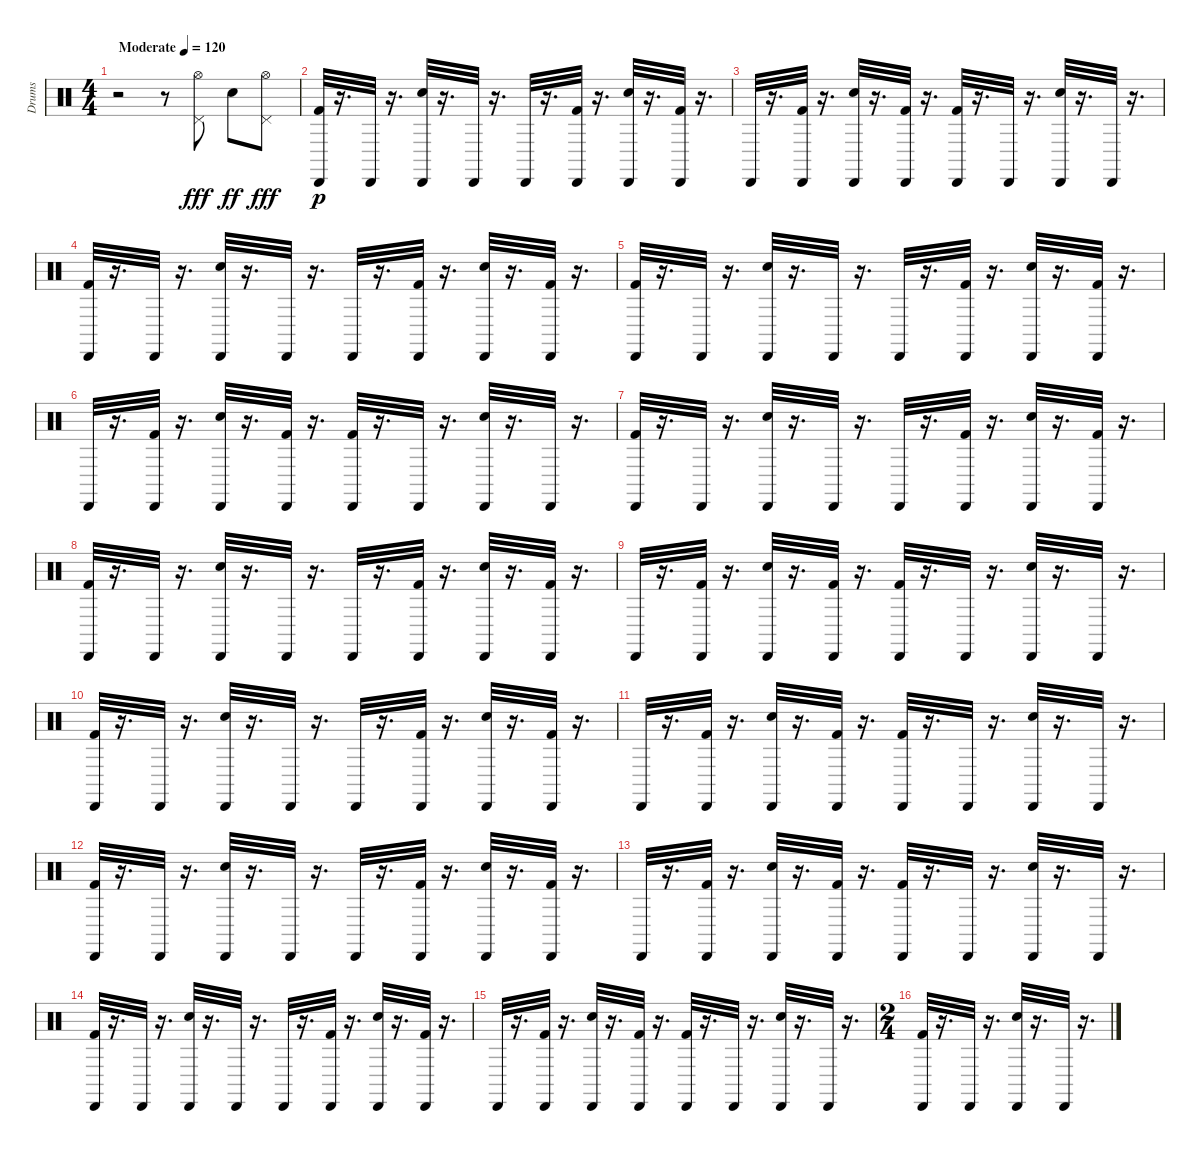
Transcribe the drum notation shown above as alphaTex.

\track ("Drums" "Drums") {instrument percussion}
\staff {score}
\articulation defaults
\ts (4 4)
\tempo (120 "Moderate")
\clef neutral
\ks c
r.2{dy fff} r.8 ("Pedal Hi-Hat (hit)" "Hi-Hat (open)").8 "Electric Snare (hit)".8{dy ff} ("Pedal Hi-Hat (hit)" "Hi-Hat (open)").8{dy fff} |
("Cabasa (hit)" "Kick (hit) 2").32{dy p} r.16{d} "Cabasa (hit)".32 r.16{d} ("Cabasa (hit)" "Electric Snare (hit)").32 r.16{d} "Cabasa (hit)".32 r.16{d} "Cabasa (hit)".32 r.16{d} ("Cabasa (hit)" "Kick (hit) 2").32 r.16{d} ("Cabasa (hit)" "Electric Snare (hit)").32 r.16{d} ("Cabasa (hit)" "Kick (hit) 2").32 r.16{d} |
"Cabasa (hit)".32 r.16{d} ("Cabasa (hit)" "Kick (hit) 2").32 r.16{d} ("Cabasa (hit)" "Electric Snare (hit)").32 r.16{d} ("Cabasa (hit)" "Kick (hit) 2").32 r.16{d} ("Cabasa (hit)" "Kick (hit) 2").32 r.16{d} "Cabasa (hit)".32 r.16{d} ("Cabasa (hit)" "Electric Snare (hit)").32 r.16{d} "Cabasa (hit)".32 r.16{d} |
("Cabasa (hit)" "Kick (hit) 2").32 r.16{d} "Cabasa (hit)".32 r.16{d} ("Cabasa (hit)" "Electric Snare (hit)").32 r.16{d} "Cabasa (hit)".32 r.16{d} "Cabasa (hit)".32 r.16{d} ("Cabasa (hit)" "Kick (hit) 2").32 r.16{d} ("Cabasa (hit)" "Electric Snare (hit)").32 r.16{d} ("Cabasa (hit)" "Kick (hit) 2").32 r.16{d} |
("Cabasa (hit)" "Kick (hit) 2").32 r.16{d} "Cabasa (hit)".32 r.16{d} ("Cabasa (hit)" "Electric Snare (hit)").32 r.16{d} "Cabasa (hit)".32 r.16{d} "Cabasa (hit)".32 r.16{d} ("Cabasa (hit)" "Kick (hit) 2").32 r.16{d} ("Cabasa (hit)" "Electric Snare (hit)").32 r.16{d} ("Cabasa (hit)" "Kick (hit) 2").32 r.16{d} |
"Cabasa (hit)".32 r.16{d} ("Cabasa (hit)" "Kick (hit) 2").32 r.16{d} ("Cabasa (hit)" "Electric Snare (hit)").32 r.16{d} ("Cabasa (hit)" "Kick (hit) 2").32 r.16{d} ("Cabasa (hit)" "Kick (hit) 2").32 r.16{d} "Cabasa (hit)".32 r.16{d} ("Cabasa (hit)" "Electric Snare (hit)").32 r.16{d} "Cabasa (hit)".32 r.16{d} |
("Cabasa (hit)" "Kick (hit) 2").32 r.16{d} "Cabasa (hit)".32 r.16{d} ("Cabasa (hit)" "Electric Snare (hit)").32 r.16{d} "Cabasa (hit)".32 r.16{d} "Cabasa (hit)".32 r.16{d} ("Cabasa (hit)" "Kick (hit) 2").32 r.16{d} ("Cabasa (hit)" "Electric Snare (hit)").32 r.16{d} ("Cabasa (hit)" "Kick (hit) 2").32 r.16{d} |
("Cabasa (hit)" "Kick (hit) 2").32 r.16{d} "Cabasa (hit)".32 r.16{d} ("Cabasa (hit)" "Electric Snare (hit)").32 r.16{d} "Cabasa (hit)".32 r.16{d} "Cabasa (hit)".32 r.16{d} ("Cabasa (hit)" "Kick (hit) 2").32 r.16{d} ("Cabasa (hit)" "Electric Snare (hit)").32 r.16{d} ("Cabasa (hit)" "Kick (hit) 2").32 r.16{d} |
"Cabasa (hit)".32 r.16{d} ("Cabasa (hit)" "Kick (hit) 2").32 r.16{d} ("Cabasa (hit)" "Electric Snare (hit)").32 r.16{d} ("Cabasa (hit)" "Kick (hit) 2").32 r.16{d} ("Cabasa (hit)" "Kick (hit) 2").32 r.16{d} "Cabasa (hit)".32 r.16{d} ("Cabasa (hit)" "Electric Snare (hit)").32 r.16{d} "Cabasa (hit)".32 r.16{d} |
("Cabasa (hit)" "Kick (hit) 2").32 r.16{d} "Cabasa (hit)".32 r.16{d} ("Cabasa (hit)" "Electric Snare (hit)").32 r.16{d} "Cabasa (hit)".32 r.16{d} "Cabasa (hit)".32 r.16{d} ("Cabasa (hit)" "Kick (hit) 2").32 r.16{d} ("Cabasa (hit)" "Electric Snare (hit)").32 r.16{d} ("Cabasa (hit)" "Kick (hit) 2").32 r.16{d} |
"Cabasa (hit)".32 r.16{d} ("Cabasa (hit)" "Kick (hit) 2").32 r.16{d} ("Cabasa (hit)" "Electric Snare (hit)").32 r.16{d} ("Cabasa (hit)" "Kick (hit) 2").32 r.16{d} ("Cabasa (hit)" "Kick (hit) 2").32 r.16{d} "Cabasa (hit)".32 r.16{d} ("Cabasa (hit)" "Electric Snare (hit)").32 r.16{d} "Cabasa (hit)".32 r.16{d} |
("Cabasa (hit)" "Kick (hit) 2").32 r.16{d} "Cabasa (hit)".32 r.16{d} ("Cabasa (hit)" "Electric Snare (hit)").32 r.16{d} "Cabasa (hit)".32 r.16{d} "Cabasa (hit)".32 r.16{d} ("Cabasa (hit)" "Kick (hit) 2").32 r.16{d} ("Cabasa (hit)" "Electric Snare (hit)").32 r.16{d} ("Cabasa (hit)" "Kick (hit) 2").32 r.16{d} |
"Cabasa (hit)".32 r.16{d} ("Cabasa (hit)" "Kick (hit) 2").32 r.16{d} ("Cabasa (hit)" "Electric Snare (hit)").32 r.16{d} ("Cabasa (hit)" "Kick (hit) 2").32 r.16{d} ("Cabasa (hit)" "Kick (hit) 2").32 r.16{d} "Cabasa (hit)".32 r.16{d} ("Cabasa (hit)" "Electric Snare (hit)").32 r.16{d} "Cabasa (hit)".32 r.16{d} |
("Cabasa (hit)" "Kick (hit) 2").32 r.16{d} "Cabasa (hit)".32 r.16{d} ("Cabasa (hit)" "Electric Snare (hit)").32 r.16{d} "Cabasa (hit)".32 r.16{d} "Cabasa (hit)".32 r.16{d} ("Cabasa (hit)" "Kick (hit) 2").32 r.16{d} ("Cabasa (hit)" "Electric Snare (hit)").32 r.16{d} ("Cabasa (hit)" "Kick (hit) 2").32 r.16{d} |
"Cabasa (hit)".32 r.16{d} ("Cabasa (hit)" "Kick (hit) 2").32 r.16{d} ("Cabasa (hit)" "Electric Snare (hit)").32 r.16{d} ("Cabasa (hit)" "Kick (hit) 2").32 r.16{d} ("Cabasa (hit)" "Kick (hit) 2").32 r.16{d} "Cabasa (hit)".32 r.16{d} ("Cabasa (hit)" "Electric Snare (hit)").32 r.16{d} "Cabasa (hit)".32 r.16{d} |
\ts (2 4)
("Cabasa (hit)" "Kick (hit) 2").32 r.16{d} "Cabasa (hit)".32 r.16{d} ("Cabasa (hit)" "Electric Snare (hit)").32 r.16{d} "Cabasa (hit)".32 r.16{d}
